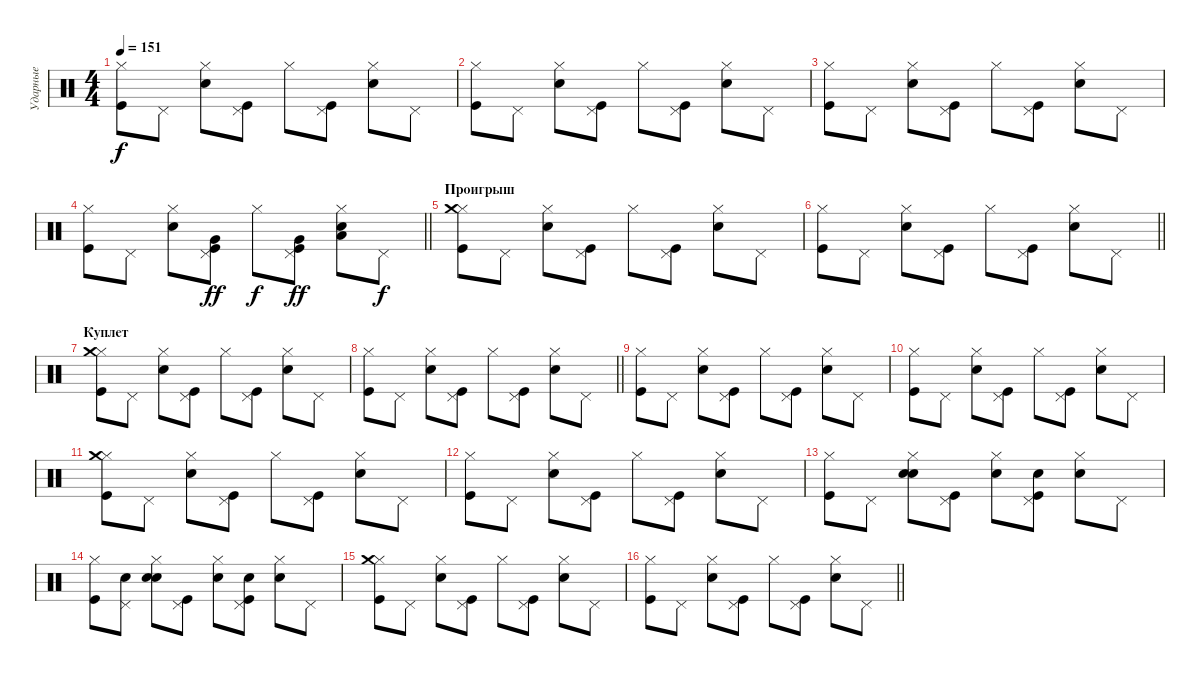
\track ("Ударные" "Ударные") {instrument percussion}
\staff {score}
\articulation defaults
\ts (4 4)
\tempo 151
\clef neutral
\ks c
("Hi-Hat (closed)" "Kick (hit)").8{dy f} "Pedal Hi-Hat (hit)".8 ("Hi-Hat (closed)" "Snare (hit) 2").8 ("Pedal Hi-Hat (hit)" "Kick (hit)").8 "Hi-Hat (closed)".8 ("Pedal Hi-Hat (hit)" "Kick (hit)").8 ("Hi-Hat (closed)" "Snare (hit) 2").8 "Pedal Hi-Hat (hit)".8 |
("Hi-Hat (closed)" "Kick (hit)").8 "Pedal Hi-Hat (hit)".8 ("Hi-Hat (closed)" "Snare (hit) 2").8 ("Pedal Hi-Hat (hit)" "Kick (hit)").8 "Hi-Hat (closed)".8 ("Pedal Hi-Hat (hit)" "Kick (hit)").8 ("Hi-Hat (closed)" "Snare (hit) 2").8 "Pedal Hi-Hat (hit)".8 |
("Hi-Hat (closed)" "Kick (hit)").8 "Pedal Hi-Hat (hit)".8 ("Hi-Hat (closed)" "Snare (hit) 2").8 ("Pedal Hi-Hat (hit)" "Kick (hit)").8 "Hi-Hat (closed)".8 ("Pedal Hi-Hat (hit)" "Kick (hit)").8 ("Hi-Hat (closed)" "Snare (hit) 2").8 "Pedal Hi-Hat (hit)".8 |
\barLineRight lightlight
("Hi-Hat (closed)" "Kick (hit)").8 "Pedal Hi-Hat (hit)".8 ("Hi-Hat (closed)" "Snare (hit) 2").8 ("Pedal Hi-Hat (hit)" "Kick (hit)" "Very Low Tom (hit)").8{dy ff} "Hi-Hat (closed)".8{dy f} ("Pedal Hi-Hat (hit)" "Kick (hit)" "Very Low Tom (hit)").8{dy ff} ("Hi-Hat (closed)" "Snare (hit) 2" "Low Tom (hit)").8 "Pedal Hi-Hat (hit)".8{dy f} |
\section ("" "Проигрыш")
("Hi-Hat (closed)" "Kick (hit)" "Crash medium (hit)").8 "Pedal Hi-Hat (hit)".8 ("Hi-Hat (closed)" "Snare (hit) 2").8 ("Pedal Hi-Hat (hit)" "Kick (hit)").8 "Hi-Hat (closed)".8 ("Pedal Hi-Hat (hit)" "Kick (hit)").8 ("Hi-Hat (closed)" "Snare (hit) 2").8 "Pedal Hi-Hat (hit)".8 |
\barLineRight lightlight
("Hi-Hat (closed)" "Kick (hit)").8 "Pedal Hi-Hat (hit)".8 ("Hi-Hat (closed)" "Snare (hit) 2").8 ("Pedal Hi-Hat (hit)" "Kick (hit)").8 "Hi-Hat (closed)".8 ("Pedal Hi-Hat (hit)" "Kick (hit)").8 ("Hi-Hat (closed)" "Snare (hit) 2").8 "Pedal Hi-Hat (hit)".8 |
\section ("" "Куплет")
("Hi-Hat (closed)" "Kick (hit)" "Crash medium (hit)").8 "Pedal Hi-Hat (hit)".8 ("Hi-Hat (closed)" "Snare (hit) 2").8 ("Pedal Hi-Hat (hit)" "Kick (hit)").8 "Hi-Hat (closed)".8 ("Pedal Hi-Hat (hit)" "Kick (hit)").8 ("Hi-Hat (closed)" "Snare (hit) 2").8 "Pedal Hi-Hat (hit)".8 |
\barLineRight lightlight
("Hi-Hat (closed)" "Kick (hit)").8 "Pedal Hi-Hat (hit)".8 ("Hi-Hat (closed)" "Snare (hit) 2").8 ("Pedal Hi-Hat (hit)" "Kick (hit)").8 "Hi-Hat (closed)".8 ("Pedal Hi-Hat (hit)" "Kick (hit)").8 ("Hi-Hat (closed)" "Snare (hit) 2").8 "Pedal Hi-Hat (hit)".8 |
("Hi-Hat (closed)" "Kick (hit)").8 "Pedal Hi-Hat (hit)".8 ("Hi-Hat (closed)" "Snare (hit) 2").8 ("Pedal Hi-Hat (hit)" "Kick (hit)").8 "Hi-Hat (closed)".8 ("Pedal Hi-Hat (hit)" "Kick (hit)").8 ("Hi-Hat (closed)" "Snare (hit) 2").8 "Pedal Hi-Hat (hit)".8 |
("Hi-Hat (closed)" "Kick (hit)").8 "Pedal Hi-Hat (hit)".8 ("Hi-Hat (closed)" "Snare (hit) 2").8 ("Pedal Hi-Hat (hit)" "Kick (hit)").8 "Hi-Hat (closed)".8 ("Pedal Hi-Hat (hit)" "Kick (hit)").8 ("Hi-Hat (closed)" "Snare (hit) 2").8 "Pedal Hi-Hat (hit)".8 |
("Hi-Hat (closed)" "Kick (hit)" "Crash medium (hit)").8 "Pedal Hi-Hat (hit)".8 ("Hi-Hat (closed)" "Snare (hit) 2").8 ("Pedal Hi-Hat (hit)" "Kick (hit)").8 "Hi-Hat (closed)".8 ("Pedal Hi-Hat (hit)" "Kick (hit)").8 ("Hi-Hat (closed)" "Snare (hit) 2").8 "Pedal Hi-Hat (hit)".8 |
("Hi-Hat (closed)" "Kick (hit)").8 "Pedal Hi-Hat (hit)".8 ("Hi-Hat (closed)" "Snare (hit) 2").8 ("Pedal Hi-Hat (hit)" "Kick (hit)").8 "Hi-Hat (closed)".8 ("Pedal Hi-Hat (hit)" "Kick (hit)").8 ("Hi-Hat (closed)" "Snare (hit) 2").8 "Pedal Hi-Hat (hit)".8 |
("Hi-Hat (closed)" "Kick (hit)").8 "Pedal Hi-Hat (hit)".8 ("Hi-Hat (closed)" "Snare (hit) 2" "Hand Clap (hit)").8 ("Pedal Hi-Hat (hit)" "Kick (hit)").8 ("Hi-Hat (closed)" "Hand Clap (hit)").8 ("Pedal Hi-Hat (hit)" "Kick (hit)" "Hand Clap (hit)").8 ("Hi-Hat (closed)" "Snare (hit) 2").8 "Pedal Hi-Hat (hit)".8 |
("Hi-Hat (closed)" "Kick (hit)").8 ("Pedal Hi-Hat (hit)" "Hand Clap (hit)").8 ("Hi-Hat (closed)" "Snare (hit) 2" "Hand Clap (hit)").8 ("Pedal Hi-Hat (hit)" "Kick (hit)").8 ("Hi-Hat (closed)" "Hand Clap (hit)").8 ("Pedal Hi-Hat (hit)" "Kick (hit)" "Hand Clap (hit)").8 ("Hi-Hat (closed)" "Snare (hit) 2").8 "Pedal Hi-Hat (hit)".8 |
("Hi-Hat (closed)" "Kick (hit)" "Crash medium (hit)").8 "Pedal Hi-Hat (hit)".8 ("Hi-Hat (closed)" "Snare (hit) 2").8 ("Pedal Hi-Hat (hit)" "Kick (hit)").8 "Hi-Hat (closed)".8 ("Pedal Hi-Hat (hit)" "Kick (hit)").8 ("Hi-Hat (closed)" "Snare (hit) 2").8 "Pedal Hi-Hat (hit)".8 |
\barLineRight lightlight
("Hi-Hat (closed)" "Kick (hit)").8 "Pedal Hi-Hat (hit)".8 ("Hi-Hat (closed)" "Snare (hit) 2").8 ("Pedal Hi-Hat (hit)" "Kick (hit)").8 "Hi-Hat (closed)".8 ("Pedal Hi-Hat (hit)" "Kick (hit)").8 ("Hi-Hat (closed)" "Snare (hit) 2").8 "Pedal Hi-Hat (hit)".8
